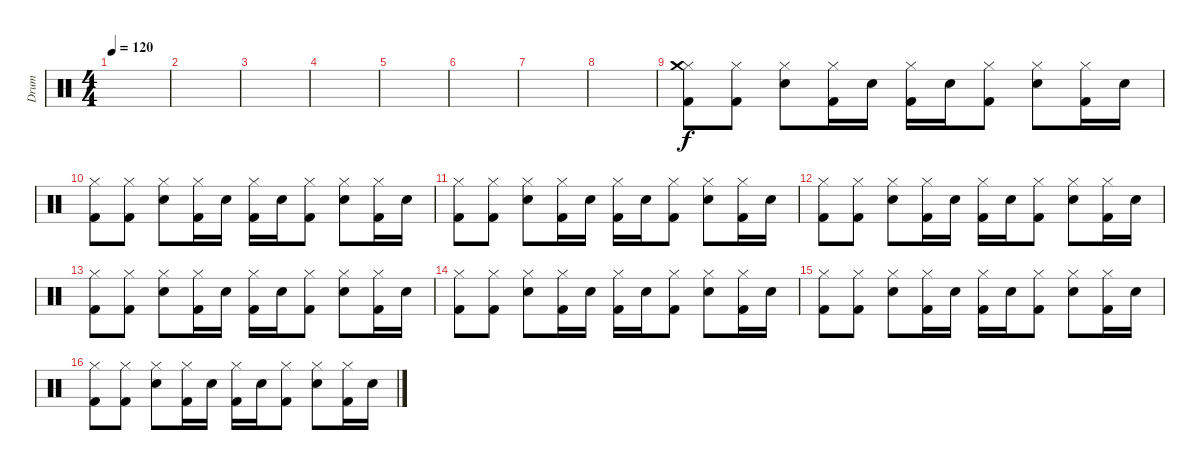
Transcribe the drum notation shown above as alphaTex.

\track ("Drum" "Drum") {instrument percussion}
\staff {score}
\articulation defaults
\ts (4 4)
\tempo 120
\clef neutral
\ks c
|
|
|
|
|
|
|
|
("Hi-Hat (closed)" "Crash medium (hit)" "Kick (hit) 2").8 ("Hi-Hat (closed)" "Kick (hit) 2").8 ("Hi-Hat (closed)" "Electric Snare (hit)").8 ("Hi-Hat (closed)" "Kick (hit) 2").16 "Electric Snare (hit)".16 ("Hi-Hat (closed)" "Kick (hit) 2").16 "Electric Snare (hit)".16 ("Hi-Hat (closed)" "Kick (hit) 2").8 ("Hi-Hat (closed)" "Electric Snare (hit)").8 ("Hi-Hat (closed)" "Kick (hit) 2").16 "Electric Snare (hit)".16 |
("Hi-Hat (closed)" "Kick (hit) 2").8 ("Hi-Hat (closed)" "Kick (hit) 2").8 ("Hi-Hat (closed)" "Electric Snare (hit)").8 ("Hi-Hat (closed)" "Kick (hit) 2").16 "Electric Snare (hit)".16 ("Hi-Hat (closed)" "Kick (hit) 2").16 "Electric Snare (hit)".16 ("Hi-Hat (closed)" "Kick (hit) 2").8 ("Hi-Hat (closed)" "Electric Snare (hit)").8 ("Hi-Hat (closed)" "Kick (hit) 2").16 "Electric Snare (hit)".16 |
("Hi-Hat (closed)" "Kick (hit) 2").8 ("Hi-Hat (closed)" "Kick (hit) 2").8 ("Hi-Hat (closed)" "Electric Snare (hit)").8 ("Hi-Hat (closed)" "Kick (hit) 2").16 "Electric Snare (hit)".16 ("Hi-Hat (closed)" "Kick (hit) 2").16 "Electric Snare (hit)".16 ("Hi-Hat (closed)" "Kick (hit) 2").8 ("Hi-Hat (closed)" "Electric Snare (hit)").8 ("Hi-Hat (closed)" "Kick (hit) 2").16 "Electric Snare (hit)".16 |
("Hi-Hat (closed)" "Kick (hit) 2").8 ("Hi-Hat (closed)" "Kick (hit) 2").8 ("Hi-Hat (closed)" "Electric Snare (hit)").8 ("Hi-Hat (closed)" "Kick (hit) 2").16 "Electric Snare (hit)".16 ("Hi-Hat (closed)" "Kick (hit) 2").16 "Electric Snare (hit)".16 ("Hi-Hat (closed)" "Kick (hit) 2").8 ("Hi-Hat (closed)" "Electric Snare (hit)").8 ("Hi-Hat (closed)" "Kick (hit) 2").16 "Electric Snare (hit)".16 |
("Hi-Hat (closed)" "Kick (hit) 2").8 ("Hi-Hat (closed)" "Kick (hit) 2").8 ("Hi-Hat (closed)" "Electric Snare (hit)").8 ("Hi-Hat (closed)" "Kick (hit) 2").16 "Electric Snare (hit)".16 ("Hi-Hat (closed)" "Kick (hit) 2").16 "Electric Snare (hit)".16 ("Hi-Hat (closed)" "Kick (hit) 2").8 ("Hi-Hat (closed)" "Electric Snare (hit)").8 ("Hi-Hat (closed)" "Kick (hit) 2").16 "Electric Snare (hit)".16 |
("Hi-Hat (closed)" "Kick (hit) 2").8 ("Hi-Hat (closed)" "Kick (hit) 2").8 ("Hi-Hat (closed)" "Electric Snare (hit)").8 ("Hi-Hat (closed)" "Kick (hit) 2").16 "Electric Snare (hit)".16 ("Hi-Hat (closed)" "Kick (hit) 2").16 "Electric Snare (hit)".16 ("Hi-Hat (closed)" "Kick (hit) 2").8 ("Hi-Hat (closed)" "Electric Snare (hit)").8 ("Hi-Hat (closed)" "Kick (hit) 2").16 "Electric Snare (hit)".16 |
("Hi-Hat (closed)" "Kick (hit) 2").8 ("Hi-Hat (closed)" "Kick (hit) 2").8 ("Hi-Hat (closed)" "Electric Snare (hit)").8 ("Hi-Hat (closed)" "Kick (hit) 2").16 "Electric Snare (hit)".16 ("Hi-Hat (closed)" "Kick (hit) 2").16 "Electric Snare (hit)".16 ("Hi-Hat (closed)" "Kick (hit) 2").8 ("Hi-Hat (closed)" "Electric Snare (hit)").8 ("Hi-Hat (closed)" "Kick (hit) 2").16 "Electric Snare (hit)".16 |
("Hi-Hat (closed)" "Kick (hit) 2").8 ("Hi-Hat (closed)" "Kick (hit) 2").8 ("Hi-Hat (closed)" "Electric Snare (hit)").8 ("Hi-Hat (closed)" "Kick (hit) 2").16 "Electric Snare (hit)".16 ("Hi-Hat (closed)" "Kick (hit) 2").16 "Electric Snare (hit)".16 ("Hi-Hat (closed)" "Kick (hit) 2").8 ("Hi-Hat (closed)" "Electric Snare (hit)").8 ("Hi-Hat (closed)" "Kick (hit) 2").16 "Electric Snare (hit)".16
